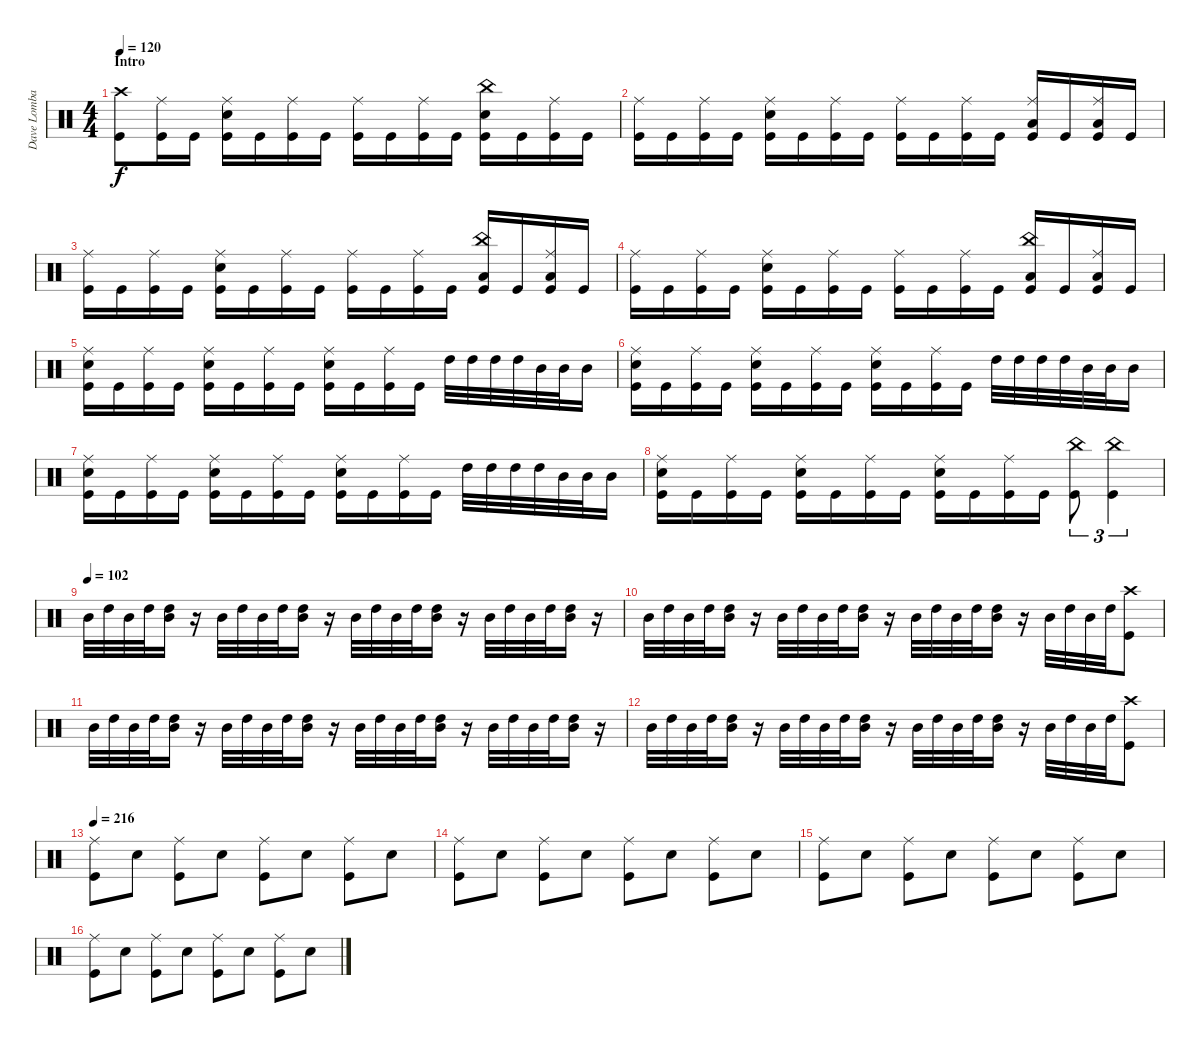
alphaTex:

\track ("Dave Lombardo" "Dave Lomba") {instrument percussion}
\staff {score}
\articulation defaults
\ts (4 4)
\section ("" "Intro")
\tempo 120
\tempo 132
\tempo 120
\clef neutral
\ks c
("Crash high (hit)" "Kick (hit)").8{dy f} ("Ride (middle)" "Kick (hit)").16 "Kick (hit)".16 ("Ride (middle)" "Electric Snare (hit)" "Kick (hit)").16 "Kick (hit)".16 ("Ride (middle)" "Kick (hit)").16 "Kick (hit)".16 ("Ride (middle)" "Kick (hit)").16 "Kick (hit)".16 ("Ride (middle)" "Kick (hit)").16 "Kick (hit)".16 ("China (hit)" "Electric Snare (hit)" "Kick (hit)").16 "Kick (hit)".16 ("Ride (middle)" "Kick (hit)").16 "Kick (hit)".16 |
("Ride (middle)" "Kick (hit)").16 "Kick (hit)".16 ("Ride (middle)" "Kick (hit)").16 "Kick (hit)".16 ("Ride (middle)" "Electric Snare (hit)" "Kick (hit)").16 "Kick (hit)".16 ("Ride (middle)" "Kick (hit)").16 "Kick (hit)".16 ("Ride (middle)" "Kick (hit)").16 "Kick (hit)".16 ("Ride (middle)" "Kick (hit)").16 "Kick (hit)".16 ("Ride (middle)" "Low Tom (hit)" "Kick (hit)").16 "Kick (hit)".16 ("Ride (middle)" "Low Tom (hit)" "Kick (hit)").16 "Kick (hit)".16 |
("Ride (middle)" "Kick (hit)").16 "Kick (hit)".16 ("Ride (middle)" "Kick (hit)").16 "Kick (hit)".16 ("Ride (middle)" "Electric Snare (hit)" "Kick (hit)").16 "Kick (hit)".16 ("Ride (middle)" "Kick (hit)").16 "Kick (hit)".16 ("Ride (middle)" "Kick (hit)").16 "Kick (hit)".16 ("Ride (middle)" "Kick (hit)").16 "Kick (hit)".16 ("China (hit)" "Low Tom (hit)" "Kick (hit)").16 "Kick (hit)".16 ("Ride (middle)" "Low Tom (hit)" "Kick (hit)").16 "Kick (hit)".16 |
("Ride (middle)" "Kick (hit)").16 "Kick (hit)".16 ("Ride (middle)" "Kick (hit)").16 "Kick (hit)".16 ("Ride (middle)" "Electric Snare (hit)" "Kick (hit)").16 "Kick (hit)".16 ("Ride (middle)" "Kick (hit)").16 "Kick (hit)".16 ("Ride (middle)" "Kick (hit)").16 "Kick (hit)".16 ("Ride (middle)" "Kick (hit)").16 "Kick (hit)".16 ("China (hit)" "Low Tom (hit)" "Kick (hit)").16 "Kick (hit)".16 ("Ride (middle)" "Low Tom (hit)" "Kick (hit)").16 "Kick (hit)".16 |
("Ride (middle)" "Electric Snare (hit)" "Kick (hit)").16 "Kick (hit)".16 ("Ride (middle)" "Kick (hit)").16 "Kick (hit)".16 ("Ride (middle)" "Electric Snare (hit)" "Kick (hit)").16 "Kick (hit)".16 ("Ride (middle)" "Kick (hit)").16 "Kick (hit)".16 ("Ride (middle)" "Electric Snare (hit)" "Kick (hit)").16 "Kick (hit)".16 ("Ride (middle)" "Kick (hit)").16 "Kick (hit)".16 "High Tom (hit)".32 "High Tom (hit)".32 "High Tom (hit)".32 "High Tom (hit)".32 "Mid Tom (hit)".32 "Mid Tom (hit)".32 "Mid Tom (hit)".16 |
("Ride (middle)" "Electric Snare (hit)" "Kick (hit)").16 "Kick (hit)".16 ("Ride (middle)" "Kick (hit)").16 "Kick (hit)".16 ("Ride (middle)" "Electric Snare (hit)" "Kick (hit)").16 "Kick (hit)".16 ("Ride (middle)" "Kick (hit)").16 "Kick (hit)".16 ("Ride (middle)" "Electric Snare (hit)" "Kick (hit)").16 "Kick (hit)".16 ("Ride (middle)" "Kick (hit)").16 "Kick (hit)".16 "High Tom (hit)".32 "High Tom (hit)".32 "High Tom (hit)".32 "High Tom (hit)".32 "Mid Tom (hit)".32 "Mid Tom (hit)".32 "Mid Tom (hit)".16 |
("Ride (middle)" "Electric Snare (hit)" "Kick (hit)").16 "Kick (hit)".16 ("Ride (middle)" "Kick (hit)").16 "Kick (hit)".16 ("Ride (middle)" "Electric Snare (hit)" "Kick (hit)").16 "Kick (hit)".16 ("Ride (middle)" "Kick (hit)").16 "Kick (hit)".16 ("Ride (middle)" "Electric Snare (hit)" "Kick (hit)").16 "Kick (hit)".16 ("Ride (middle)" "Kick (hit)").16 "Kick (hit)".16 "High Tom (hit)".32 "High Tom (hit)".32 "High Tom (hit)".32 "High Tom (hit)".32 "Mid Tom (hit)".32 "Mid Tom (hit)".32 "Mid Tom (hit)".16 |
("Ride (middle)" "Electric Snare (hit)" "Kick (hit)").16 "Kick (hit)".16 ("Ride (middle)" "Kick (hit)").16 "Kick (hit)".16 ("Ride (middle)" "Electric Snare (hit)" "Kick (hit)").16 "Kick (hit)".16 ("Ride (middle)" "Kick (hit)").16 "Kick (hit)".16 ("Ride (middle)" "Electric Snare (hit)" "Kick (hit)").16 "Kick (hit)".16 ("Ride (middle)" "Kick (hit)").16 "Kick (hit)".16 ("China (hit)" "Kick (hit)").8{tu (3 2)} ("China (hit)" "Kick (hit)").4{tu (3 2)} |
\tempo (102)
"Mid Tom (hit)".32 "High Tom (hit)".32 "Mid Tom (hit)".32 "High Tom (hit)".32 ("High Tom (hit)" "Mid Tom (hit)").16 r.16 "Mid Tom (hit)".32 "High Tom (hit)".32 "Mid Tom (hit)".32 "High Tom (hit)".32 ("High Tom (hit)" "Mid Tom (hit)").16 r.16 "Mid Tom (hit)".32 "High Tom (hit)".32 "Mid Tom (hit)".32 "High Tom (hit)".32 ("High Tom (hit)" "Mid Tom (hit)").16 r.16 "Mid Tom (hit)".32 "High Tom (hit)".32 "Mid Tom (hit)".32 "High Tom (hit)".32 ("High Tom (hit)" "Mid Tom (hit)").16 r.16 |
"Mid Tom (hit)".32 "High Tom (hit)".32 "Mid Tom (hit)".32 "High Tom (hit)".32 ("High Tom (hit)" "Mid Tom (hit)").16 r.16 "Mid Tom (hit)".32 "High Tom (hit)".32 "Mid Tom (hit)".32 "High Tom (hit)".32 ("High Tom (hit)" "Mid Tom (hit)").16 r.16 "Mid Tom (hit)".32 "High Tom (hit)".32 "Mid Tom (hit)".32 "High Tom (hit)".32 ("High Tom (hit)" "Mid Tom (hit)").16 r.16 "Mid Tom (hit)".32 "High Tom (hit)".32 "Mid Tom (hit)".32 "High Tom (hit)".32 ("Crash high (hit)" "Kick (hit)").8 |
"Mid Tom (hit)".32 "High Tom (hit)".32 "Mid Tom (hit)".32 "High Tom (hit)".32 ("High Tom (hit)" "Mid Tom (hit)").16 r.16 "Mid Tom (hit)".32 "High Tom (hit)".32 "Mid Tom (hit)".32 "High Tom (hit)".32 ("High Tom (hit)" "Mid Tom (hit)").16 r.16 "Mid Tom (hit)".32 "High Tom (hit)".32 "Mid Tom (hit)".32 "High Tom (hit)".32 ("High Tom (hit)" "Mid Tom (hit)").16 r.16 "Mid Tom (hit)".32 "High Tom (hit)".32 "Mid Tom (hit)".32 "High Tom (hit)".32 ("High Tom (hit)" "Mid Tom (hit)").16 r.16 |
"Mid Tom (hit)".32 "High Tom (hit)".32 "Mid Tom (hit)".32 "High Tom (hit)".32 ("High Tom (hit)" "Mid Tom (hit)").16 r.16 "Mid Tom (hit)".32 "High Tom (hit)".32 "Mid Tom (hit)".32 "High Tom (hit)".32 ("High Tom (hit)" "Mid Tom (hit)").16 r.16 "Mid Tom (hit)".32 "High Tom (hit)".32 "Mid Tom (hit)".32 "High Tom (hit)".32 ("High Tom (hit)" "Mid Tom (hit)").16 r.16 "Mid Tom (hit)".32 "High Tom (hit)".32 "Mid Tom (hit)".32 "High Tom (hit)".32 ("Crash high (hit)" "Kick (hit)").8 |
\tempo 216
("Ride (middle)" "Kick (hit)").8 "Electric Snare (hit)".8 ("Ride (middle)" "Kick (hit)").8 "Electric Snare (hit)".8 ("Ride (middle)" "Kick (hit)").8 "Electric Snare (hit)".8 ("Ride (middle)" "Kick (hit)").8 "Electric Snare (hit)".8 |
("Ride (middle)" "Kick (hit)").8 "Electric Snare (hit)".8 ("Ride (middle)" "Kick (hit)").8 "Electric Snare (hit)".8 ("Ride (middle)" "Kick (hit)").8 "Electric Snare (hit)".8 ("Ride (middle)" "Kick (hit)").8 "Electric Snare (hit)".8 |
("Ride (middle)" "Kick (hit)").8 "Electric Snare (hit)".8 ("Ride (middle)" "Kick (hit)").8 "Electric Snare (hit)".8 ("Ride (middle)" "Kick (hit)").8 "Electric Snare (hit)".8 ("Ride (middle)" "Kick (hit)").8 "Electric Snare (hit)".8 |
("Ride (middle)" "Kick (hit)").8 "Electric Snare (hit)".8 ("Ride (middle)" "Kick (hit)").8 "Electric Snare (hit)".8 ("Ride (middle)" "Kick (hit)").8 "Electric Snare (hit)".8 ("Ride (middle)" "Kick (hit)").8 "Electric Snare (hit)".8
